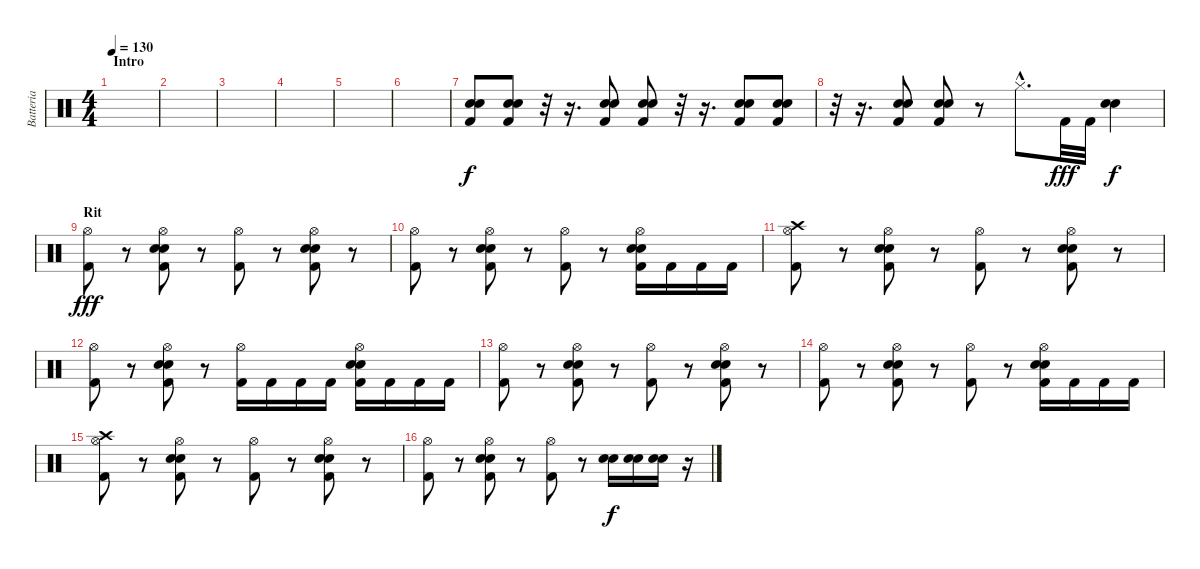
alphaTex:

\track ("Batteria" "Batteria") {instrument percussion}
\staff {score}
\articulation defaults
\ts (4 4)
\section ("" "Intro")
\tempo 130
\clef neutral
\ks c
|
|
|
|
|
|
("Electric Snare (hit)" "Snare (hit) 2" "Kick (hit) 2").8 ("Electric Snare (hit)" "Snare (hit) 2" "Kick (hit) 2").8 r.32 r.16{d} ("Electric Snare (hit)" "Snare (hit) 2" "Kick (hit) 2").8 ("Electric Snare (hit)" "Snare (hit) 2" "Kick (hit) 2").8 r.32 r.16{d} ("Electric Snare (hit)" "Snare (hit) 2" "Kick (hit) 2").8 ("Electric Snare (hit)" "Snare (hit) 2" "Kick (hit) 2").8 |
r.32 r.16{d} ("Electric Snare (hit)" "Snare (hit) 2" "Kick (hit) 2").8 ("Electric Snare (hit)" "Snare (hit) 2" "Kick (hit) 2").8 r.8 "Hi-Hat (closed)"{hac}.8{d dy f} "Kick (hit) 2".32{dy fff} "Kick (hit) 2".32 ("Snare (hit) 2" "Electric Snare (hit)").4{dy f} |
\section ("" "Rit")
("Hi-Hat (open)" "Kick (hit) 2").8{dy fff} r.8 ("Hi-Hat (open)" "Electric Snare (hit)" "Snare (hit) 2" "Kick (hit) 2").8 r.8 ("Hi-Hat (open)" "Kick (hit) 2").8 r.8 ("Hi-Hat (open)" "Electric Snare (hit)" "Snare (hit) 2" "Kick (hit) 2").8 r.8 |
("Hi-Hat (open)" "Kick (hit) 2").8 r.8 ("Hi-Hat (open)" "Electric Snare (hit)" "Snare (hit) 2" "Kick (hit) 2").8 r.8 ("Hi-Hat (open)" "Kick (hit) 2").8 r.8 ("Hi-Hat (open)" "Electric Snare (hit)" "Snare (hit) 2" "Kick (hit) 2").16 "Kick (hit) 2".16 "Kick (hit) 2".16 "Kick (hit) 2".16 |
("Crash high (hit)" "Hi-Hat (open)" "Kick (hit) 2").8 r.8 ("Hi-Hat (open)" "Electric Snare (hit)" "Snare (hit) 2" "Kick (hit) 2").8 r.8 ("Hi-Hat (open)" "Kick (hit) 2").8 r.8 ("Hi-Hat (open)" "Electric Snare (hit)" "Snare (hit) 2" "Kick (hit) 2").8 r.8 |
("Hi-Hat (open)" "Kick (hit) 2").8 r.8 ("Hi-Hat (open)" "Electric Snare (hit)" "Snare (hit) 2" "Kick (hit) 2").8 r.8 ("Hi-Hat (open)" "Kick (hit) 2").16 "Kick (hit) 2".16 "Kick (hit) 2".16 "Kick (hit) 2".16 ("Hi-Hat (open)" "Electric Snare (hit)" "Snare (hit) 2" "Kick (hit) 2").16 "Kick (hit) 2".16 "Kick (hit) 2".16 "Kick (hit) 2".16 |
("Hi-Hat (open)" "Kick (hit) 2").8 r.8 ("Hi-Hat (open)" "Electric Snare (hit)" "Snare (hit) 2" "Kick (hit) 2").8 r.8 ("Hi-Hat (open)" "Kick (hit) 2").8 r.8 ("Hi-Hat (open)" "Electric Snare (hit)" "Snare (hit) 2" "Kick (hit) 2").8 r.8 |
("Hi-Hat (open)" "Kick (hit) 2").8 r.8 ("Hi-Hat (open)" "Electric Snare (hit)" "Snare (hit) 2" "Kick (hit) 2").8 r.8 ("Hi-Hat (open)" "Kick (hit) 2").8 r.8 ("Hi-Hat (open)" "Electric Snare (hit)" "Snare (hit) 2" "Kick (hit) 2").16 "Kick (hit) 2".16 "Kick (hit) 2".16 "Kick (hit) 2".16 |
("Crash high (hit)" "Hi-Hat (open)" "Kick (hit) 2").8 r.8 ("Hi-Hat (open)" "Electric Snare (hit)" "Snare (hit) 2" "Kick (hit) 2").8 r.8 ("Hi-Hat (open)" "Kick (hit) 2").8 r.8 ("Hi-Hat (open)" "Electric Snare (hit)" "Snare (hit) 2" "Kick (hit) 2").8 r.8 |
("Hi-Hat (open)" "Kick (hit) 2").8 r.8 ("Hi-Hat (open)" "Electric Snare (hit)" "Snare (hit) 2" "Kick (hit) 2").8 r.8 ("Hi-Hat (open)" "Kick (hit) 2").8 r.8 ("Electric Snare (hit)" "Snare (hit) 2").16{dy f} ("Electric Snare (hit)" "Snare (hit) 2").16 ("Electric Snare (hit)" "Snare (hit) 2").16 r.16
